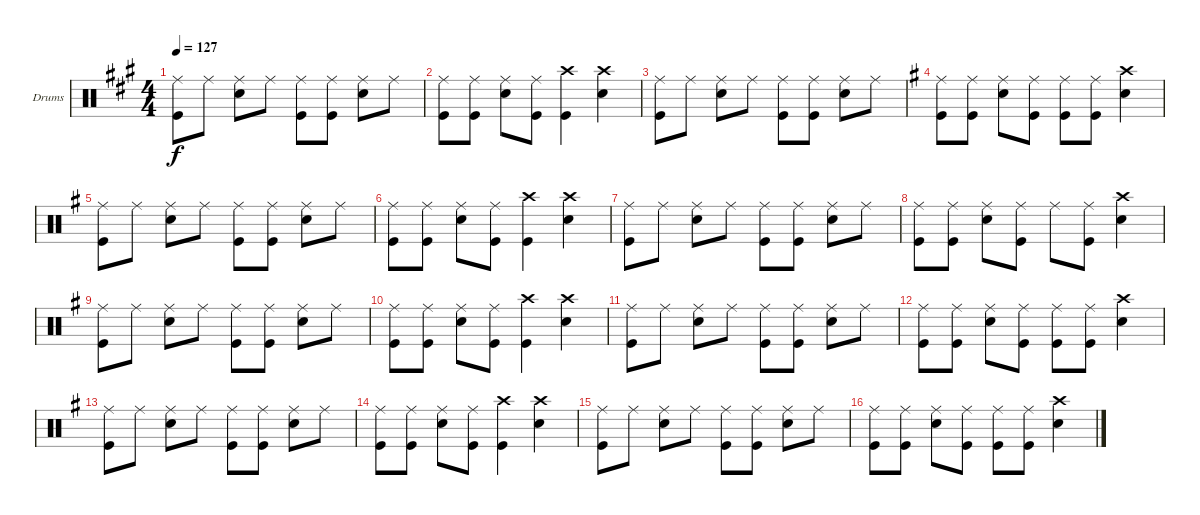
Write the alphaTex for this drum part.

\bracketExtendMode groupsimilarinstruments
\firstSystemTrackNameOrientation horizontal
\otherSystemsTrackNameOrientation horizontal
\track ("Drumkit" "Drums") {instrument percussion}
\staff {score}
\articulation defaults
\ts (4 4)
\tempo 127
\clef neutral
\ks f#minor
("Kick (hit)" "Ride (middle)").8{dy f} "Ride (middle)".8 ("Ride (middle)" "Snare (hit) 2").8 "Ride (middle)".8 ("Kick (hit)" "Ride (middle)").8 ("Ride (middle)" "Kick (hit)").8 ("Ride (middle)" "Snare (hit) 2").8 "Ride (middle)".8 |
("Kick (hit)" "Ride (middle)").8 ("Ride (middle)" "Kick (hit)").8 ("Ride (middle)" "Snare (hit) 2").8 ("Ride (middle)" "Kick (hit)").8 ("Kick (hit)" "Crash high (hit)").4 ("Snare (hit) 2" "Crash high (hit)").4 |
("Kick (hit)" "Ride (middle)").8 "Ride (middle)".8 ("Ride (middle)" "Snare (hit) 2").8 "Ride (middle)".8 ("Kick (hit)" "Ride (middle)").8 ("Ride (middle)" "Kick (hit)").8 ("Ride (middle)" "Snare (hit) 2").8 "Ride (middle)".8 |
\ks eminor
("Kick (hit)" "Ride (middle)").8 ("Ride (middle)" "Kick (hit)").8 ("Ride (middle)" "Snare (hit) 2").8 ("Ride (middle)" "Kick (hit)").8 ("Ride (middle)" "Kick (hit)").8 ("Ride (middle)" "Kick (hit)").8 ("Snare (hit) 2" "Crash high (hit)").4 |
("Kick (hit)" "Ride (middle)").8 "Ride (middle)".8 ("Ride (middle)" "Snare (hit) 2").8 "Ride (middle)".8 ("Kick (hit)" "Ride (middle)").8 ("Ride (middle)" "Kick (hit)").8 ("Ride (middle)" "Snare (hit) 2").8 "Ride (middle)".8 |
("Kick (hit)" "Ride (middle)").8 ("Ride (middle)" "Kick (hit)").8 ("Ride (middle)" "Snare (hit) 2").8 ("Ride (middle)" "Kick (hit)").8 ("Kick (hit)" "Crash high (hit)").4 ("Snare (hit) 2" "Crash high (hit)").4 |
("Kick (hit)" "Ride (middle)").8 "Ride (middle)".8 ("Ride (middle)" "Snare (hit) 2").8 "Ride (middle)".8 ("Kick (hit)" "Ride (middle)").8 ("Ride (middle)" "Kick (hit)").8 ("Ride (middle)" "Snare (hit) 2").8 "Ride (middle)".8 |
("Kick (hit)" "Ride (middle)").8 ("Ride (middle)" "Kick (hit)").8 ("Ride (middle)" "Snare (hit) 2").8 ("Ride (middle)" "Kick (hit)").8 "Ride (middle)".8 ("Ride (middle)" "Kick (hit)").8 ("Snare (hit) 2" "Crash high (hit)").4 |
("Kick (hit)" "Ride (middle)").8 "Ride (middle)".8 ("Ride (middle)" "Snare (hit) 2").8 "Ride (middle)".8 ("Kick (hit)" "Ride (middle)").8 ("Ride (middle)" "Kick (hit)").8 ("Ride (middle)" "Snare (hit) 2").8 "Ride (middle)".8 |
("Kick (hit)" "Ride (middle)").8 ("Ride (middle)" "Kick (hit)").8 ("Ride (middle)" "Snare (hit) 2").8 ("Ride (middle)" "Kick (hit)").8 ("Kick (hit)" "Crash high (hit)").4 ("Snare (hit) 2" "Crash high (hit)").4 |
("Kick (hit)" "Ride (middle)").8 "Ride (middle)".8 ("Ride (middle)" "Snare (hit) 2").8 "Ride (middle)".8 ("Kick (hit)" "Ride (middle)").8 ("Ride (middle)" "Kick (hit)").8 ("Ride (middle)" "Snare (hit) 2").8 "Ride (middle)".8 |
("Kick (hit)" "Ride (middle)").8 ("Ride (middle)" "Kick (hit)").8 ("Ride (middle)" "Snare (hit) 2").8 ("Ride (middle)" "Kick (hit)").8 ("Ride (middle)" "Kick (hit)").8 ("Ride (middle)" "Kick (hit)").8 ("Snare (hit) 2" "Crash high (hit)").4 |
("Kick (hit)" "Ride (middle)").8 "Ride (middle)".8 ("Ride (middle)" "Snare (hit) 2").8 "Ride (middle)".8 ("Kick (hit)" "Ride (middle)").8 ("Ride (middle)" "Kick (hit)").8 ("Ride (middle)" "Snare (hit) 2").8 "Ride (middle)".8 |
("Kick (hit)" "Ride (middle)").8 ("Ride (middle)" "Kick (hit)").8 ("Ride (middle)" "Snare (hit) 2").8 ("Ride (middle)" "Kick (hit)").8 ("Kick (hit)" "Crash high (hit)").4 ("Snare (hit) 2" "Crash high (hit)").4 |
("Kick (hit)" "Ride (middle)").8 "Ride (middle)".8 ("Ride (middle)" "Snare (hit) 2").8 "Ride (middle)".8 ("Kick (hit)" "Ride (middle)").8 ("Ride (middle)" "Kick (hit)").8 ("Ride (middle)" "Snare (hit) 2").8 "Ride (middle)".8 |
("Kick (hit)" "Ride (middle)").8 ("Ride (middle)" "Kick (hit)").8 ("Ride (middle)" "Snare (hit) 2").8 ("Ride (middle)" "Kick (hit)").8 ("Ride (middle)" "Kick (hit)").8 ("Ride (middle)" "Kick (hit)").8 ("Snare (hit) 2" "Crash high (hit)").4
